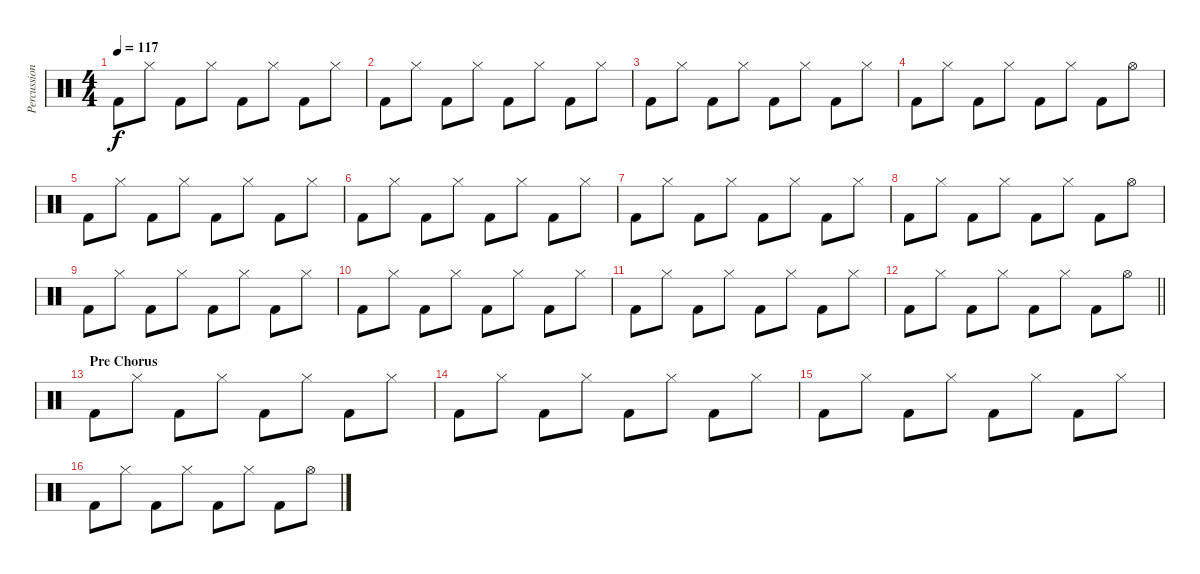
\track ("Percussion" "Percussion") {instrument percussion}
\staff {score}
\articulation defaults
\ts (4 4)
\tempo 117
\clef neutral
\ks c "Kick (hit) 2".8{dy f} "Hi-Hat (closed)".8 "Kick (hit) 2".8 "Hi-Hat (closed)".8 "Kick (hit) 2".8 "Hi-Hat (closed)".8 "Kick (hit) 2".8 "Hi-Hat (closed)".8
|
"Kick (hit) 2".8 "Hi-Hat (closed)".8 "Kick (hit) 2".8 "Hi-Hat (closed)".8 "Kick (hit) 2".8 "Hi-Hat (closed)".8 "Kick (hit) 2".8 "Hi-Hat (closed)".8 |
"Kick (hit) 2".8 "Hi-Hat (closed)".8 "Kick (hit) 2".8 "Hi-Hat (closed)".8 "Kick (hit) 2".8 "Hi-Hat (closed)".8 "Kick (hit) 2".8 "Hi-Hat (closed)".8 |
"Kick (hit) 2".8 "Hi-Hat (closed)".8 "Kick (hit) 2".8 "Hi-Hat (closed)".8 "Kick (hit) 2".8 "Hi-Hat (closed)".8 "Kick (hit) 2".8 "Hi-Hat (open)".8 |
"Kick (hit) 2".8 "Hi-Hat (closed)".8 "Kick (hit) 2".8 "Hi-Hat (closed)".8 "Kick (hit) 2".8 "Hi-Hat (closed)".8 "Kick (hit) 2".8 "Hi-Hat (closed)".8 |
"Kick (hit) 2".8 "Hi-Hat (closed)".8 "Kick (hit) 2".8 "Hi-Hat (closed)".8 "Kick (hit) 2".8 "Hi-Hat (closed)".8 "Kick (hit) 2".8 "Hi-Hat (closed)".8 |
"Kick (hit) 2".8 "Hi-Hat (closed)".8 "Kick (hit) 2".8 "Hi-Hat (closed)".8 "Kick (hit) 2".8 "Hi-Hat (closed)".8 "Kick (hit) 2".8 "Hi-Hat (closed)".8 |
"Kick (hit) 2".8 "Hi-Hat (closed)".8 "Kick (hit) 2".8 "Hi-Hat (closed)".8 "Kick (hit) 2".8 "Hi-Hat (closed)".8 "Kick (hit) 2".8 "Hi-Hat (open)".8 |
"Kick (hit) 2".8 "Hi-Hat (closed)".8 "Kick (hit) 2".8 "Hi-Hat (closed)".8 "Kick (hit) 2".8 "Hi-Hat (closed)".8 "Kick (hit) 2".8 "Hi-Hat (closed)".8 |
"Kick (hit) 2".8 "Hi-Hat (closed)".8 "Kick (hit) 2".8 "Hi-Hat (closed)".8 "Kick (hit) 2".8 "Hi-Hat (closed)".8 "Kick (hit) 2".8 "Hi-Hat (closed)".8 |
"Kick (hit) 2".8 "Hi-Hat (closed)".8 "Kick (hit) 2".8 "Hi-Hat (closed)".8 "Kick (hit) 2".8 "Hi-Hat (closed)".8 "Kick (hit) 2".8 "Hi-Hat (closed)".8 |
\barLineRight lightlight "Kick (hit) 2".8 "Hi-Hat (closed)".8 "Kick (hit) 2".8 "Hi-Hat (closed)".8 "Kick (hit) 2".8 "Hi-Hat (closed)".8 "Kick (hit) 2".8 "Hi-Hat (open)".8
|
\section ("" "Pre Chorus")
"Kick (hit) 2".8 "Hi-Hat (closed)".8 "Kick (hit) 2".8 "Hi-Hat (closed)".8 "Kick (hit) 2".8 "Hi-Hat (closed)".8 "Kick (hit) 2".8 "Hi-Hat (closed)".8 |
"Kick (hit) 2".8 "Hi-Hat (closed)".8 "Kick (hit) 2".8 "Hi-Hat (closed)".8 "Kick (hit) 2".8 "Hi-Hat (closed)".8 "Kick (hit) 2".8 "Hi-Hat (closed)".8 |
"Kick (hit) 2".8 "Hi-Hat (closed)".8 "Kick (hit) 2".8 "Hi-Hat (closed)".8 "Kick (hit) 2".8 "Hi-Hat (closed)".8 "Kick (hit) 2".8 "Hi-Hat (closed)".8 |
"Kick (hit) 2".8 "Hi-Hat (closed)".8 "Kick (hit) 2".8 "Hi-Hat (closed)".8 "Kick (hit) 2".8 "Hi-Hat (closed)".8 "Kick (hit) 2".8 "Hi-Hat (open)".8
